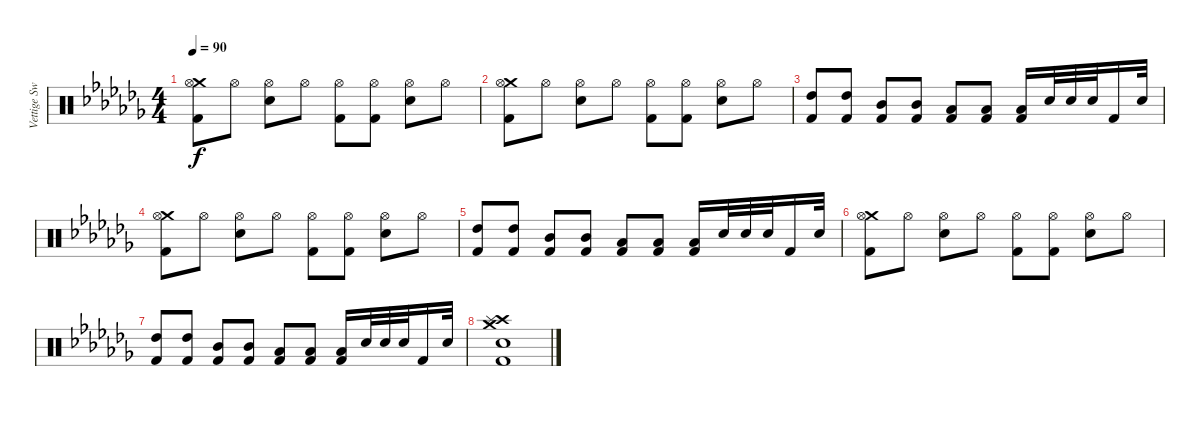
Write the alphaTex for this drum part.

\track ("Vettige Swa" "Vettige Sw") {instrument percussion}
\staff {score}
\articulation defaults
\ts (4 4)
\tempo 90
\clef neutral
\ks abminor
("Kick (hit) 2" "Crash medium (hit)" "Hi-Hat (open)").8{dy f} "Hi-Hat (open)".8 ("Hi-Hat (open)" "Electric Snare (hit)").8 "Hi-Hat (open)".8 ("Hi-Hat (open)" "Kick (hit) 2").8 ("Hi-Hat (open)" "Kick (hit) 2").8 ("Hi-Hat (open)" "Electric Snare (hit)").8 "Hi-Hat (open)".8 |
("Kick (hit) 2" "Crash medium (hit)" "Hi-Hat (open)").8 "Hi-Hat (open)".8 ("Hi-Hat (open)" "Electric Snare (hit)").8 "Hi-Hat (open)".8 ("Hi-Hat (open)" "Kick (hit) 2").8 ("Hi-Hat (open)" "Kick (hit) 2").8 ("Hi-Hat (open)" "Electric Snare (hit)").8 "Hi-Hat (open)".8 |
("Kick (hit) 2" "High Tom (hit)").8 ("Kick (hit) 2" "High Tom (hit)").8 ("Kick (hit) 2" "Mid Tom (hit)").8 ("Kick (hit) 2" "Mid Tom (hit)").8 ("Kick (hit) 2" "Low Tom (hit)").8 ("Kick (hit) 2" "Low Tom (hit)").8 ("Kick (hit) 2" "Low Floor Tom (hit)").16 "Electric Snare (hit)".32 "Electric Snare (hit)".32 "Electric Snare (hit)".32 "Kick (hit) 2".16 "Electric Snare (hit)".32 |
("Kick (hit) 2" "Crash medium (hit)" "Hi-Hat (open)").8 "Hi-Hat (open)".8 ("Hi-Hat (open)" "Electric Snare (hit)").8 "Hi-Hat (open)".8 ("Hi-Hat (open)" "Kick (hit) 2").8 ("Hi-Hat (open)" "Kick (hit) 2").8 ("Hi-Hat (open)" "Electric Snare (hit)").8 "Hi-Hat (open)".8 |
("Kick (hit) 2" "High Tom (hit)").8 ("Kick (hit) 2" "High Tom (hit)").8 ("Kick (hit) 2" "Mid Tom (hit)").8 ("Kick (hit) 2" "Mid Tom (hit)").8 ("Kick (hit) 2" "Low Tom (hit)").8 ("Kick (hit) 2" "Low Tom (hit)").8 ("Kick (hit) 2" "Low Floor Tom (hit)").16 "Electric Snare (hit)".32 "Electric Snare (hit)".32 "Electric Snare (hit)".32 "Kick (hit) 2".16 "Electric Snare (hit)".32 |
("Kick (hit) 2" "Crash medium (hit)" "Hi-Hat (open)").8 "Hi-Hat (open)".8 ("Hi-Hat (open)" "Electric Snare (hit)").8 "Hi-Hat (open)".8 ("Hi-Hat (open)" "Kick (hit) 2").8 ("Hi-Hat (open)" "Kick (hit) 2").8 ("Hi-Hat (open)" "Electric Snare (hit)").8 "Hi-Hat (open)".8 |
("Kick (hit) 2" "High Tom (hit)").8 ("Kick (hit) 2" "High Tom (hit)").8 ("Kick (hit) 2" "Mid Tom (hit)").8 ("Kick (hit) 2" "Mid Tom (hit)").8 ("Kick (hit) 2" "Low Tom (hit)").8 ("Kick (hit) 2" "Low Tom (hit)").8 ("Kick (hit) 2" "Low Floor Tom (hit)").16 "Electric Snare (hit)".32 "Electric Snare (hit)".32 "Electric Snare (hit)".32 "Kick (hit) 2".16 "Electric Snare (hit)".32 |
("Crash medium (hit)" "Kick (hit) 2" "Crash high (hit)" "Splash (hit)" "Electric Snare (hit)").1
